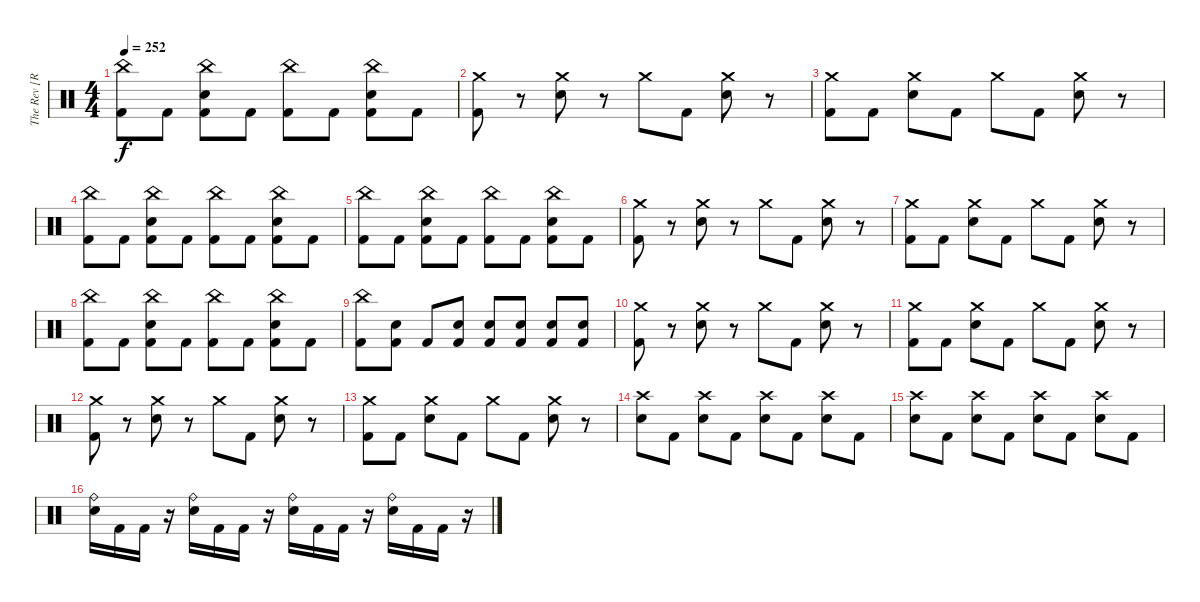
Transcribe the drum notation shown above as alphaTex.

\track ("The Rev [R.I.P]" "The Rev [R") {instrument percussion}
\staff {score}
\articulation defaults
\ts (4 4)
\tempo 252
\clef neutral
\ks c
("China (hit)" "Kick (hit) 2").8{dy f} "Kick (hit) 2".8 ("China (hit)" "Electric Snare (hit)" "Kick (hit) 2").8 "Kick (hit) 2".8 ("China (hit)" "Kick (hit) 2").8 "Kick (hit) 2".8 ("China (hit)" "Electric Snare (hit)" "Kick (hit) 2").8 "Kick (hit) 2".8 |
("Crash medium (hit)" "Kick (hit) 2").8 r.8 ("Crash medium (hit)" "Electric Snare (hit)").8 r.8 "Crash medium (hit)".8 "Kick (hit) 2".8 ("Crash medium (hit)" "Electric Snare (hit)").8 r.8 |
("Crash medium (hit)" "Kick (hit) 2").8 "Kick (hit) 2".8 ("Crash medium (hit)" "Electric Snare (hit)").8 "Kick (hit) 2".8 "Crash medium (hit)".8 "Kick (hit) 2".8 ("Crash medium (hit)" "Electric Snare (hit)").8 r.8 |
("China (hit)" "Kick (hit) 2").8 "Kick (hit) 2".8 ("China (hit)" "Electric Snare (hit)" "Kick (hit) 2").8 "Kick (hit) 2".8 ("China (hit)" "Kick (hit) 2").8 "Kick (hit) 2".8 ("China (hit)" "Electric Snare (hit)" "Kick (hit) 2").8 "Kick (hit) 2".8 |
("China (hit)" "Kick (hit) 2").8 "Kick (hit) 2".8 ("China (hit)" "Electric Snare (hit)" "Kick (hit) 2").8 "Kick (hit) 2".8 ("China (hit)" "Kick (hit) 2").8 "Kick (hit) 2".8 ("China (hit)" "Electric Snare (hit)" "Kick (hit) 2").8 "Kick (hit) 2".8 |
("Crash medium (hit)" "Kick (hit) 2").8 r.8 ("Crash medium (hit)" "Electric Snare (hit)").8 r.8 "Crash medium (hit)".8 "Kick (hit) 2".8 ("Crash medium (hit)" "Electric Snare (hit)").8 r.8 |
("Crash medium (hit)" "Kick (hit) 2").8 "Kick (hit) 2".8 ("Crash medium (hit)" "Electric Snare (hit)").8 "Kick (hit) 2".8 "Crash medium (hit)".8 "Kick (hit) 2".8 ("Crash medium (hit)" "Electric Snare (hit)").8 r.8 |
("China (hit)" "Kick (hit) 2").8 "Kick (hit) 2".8 ("China (hit)" "Electric Snare (hit)" "Kick (hit) 2").8 "Kick (hit) 2".8 ("China (hit)" "Kick (hit) 2").8 "Kick (hit) 2".8 ("China (hit)" "Electric Snare (hit)" "Kick (hit) 2").8 "Kick (hit) 2".8 |
("China (hit)" "Kick (hit) 2").8 ("Electric Snare (hit)" "Kick (hit) 2").8 "Kick (hit) 2".8 ("Electric Snare (hit)" "Kick (hit) 2").8 ("Electric Snare (hit)" "Kick (hit) 2").8 ("Electric Snare (hit)" "Kick (hit) 2").8 ("Electric Snare (hit)" "Kick (hit) 2").8 ("Electric Snare (hit)" "Kick (hit) 2").8 |
("Crash medium (hit)" "Kick (hit) 2").8 r.8 ("Crash medium (hit)" "Electric Snare (hit)").8 r.8 "Crash medium (hit)".8 "Kick (hit) 2".8 ("Crash medium (hit)" "Electric Snare (hit)").8 r.8 |
("Crash medium (hit)" "Kick (hit) 2").8 "Kick (hit) 2".8 ("Crash medium (hit)" "Electric Snare (hit)").8 "Kick (hit) 2".8 "Crash medium (hit)".8 "Kick (hit) 2".8 ("Crash medium (hit)" "Electric Snare (hit)").8 r.8 |
("Crash medium (hit)" "Kick (hit) 2").8 r.8 ("Crash medium (hit)" "Electric Snare (hit)").8 r.8 "Crash medium (hit)".8 "Kick (hit) 2".8 ("Crash medium (hit)" "Electric Snare (hit)").8 r.8 |
("Crash medium (hit)" "Kick (hit) 2").8 "Kick (hit) 2".8 ("Crash medium (hit)" "Electric Snare (hit)").8 "Kick (hit) 2".8 "Crash medium (hit)".8 "Kick (hit) 2".8 ("Crash medium (hit)" "Electric Snare (hit)").8 r.8 |
("Crash high (hit)" "Electric Snare (hit)").8 "Kick (hit) 2".8 ("Crash high (hit)" "Electric Snare (hit)").8 "Kick (hit) 2".8 ("Crash high (hit)" "Electric Snare (hit)").8 "Kick (hit) 2".8 ("Crash high (hit)" "Electric Snare (hit)").8 "Kick (hit) 2".8 |
("Crash high (hit)" "Electric Snare (hit)").8 "Kick (hit) 2".8 ("Crash high (hit)" "Electric Snare (hit)").8 "Kick (hit) 2".8 ("Crash high (hit)" "Electric Snare (hit)").8 "Kick (hit) 2".8 ("Crash high (hit)" "Electric Snare (hit)").8 "Kick (hit) 2".8 |
("Ride (bell)" "Electric Snare (hit)").16 "Kick (hit) 2".16 "Kick (hit) 2".16 r.16 ("Ride (bell)" "Electric Snare (hit)").16 "Kick (hit) 2".16 "Kick (hit) 2".16 r.16 ("Ride (bell)" "Electric Snare (hit)").16 "Kick (hit) 2".16 "Kick (hit) 2".16 r.16 ("Ride (bell)" "Electric Snare (hit)").16 "Kick (hit) 2".16 "Kick (hit) 2".16 r.16
